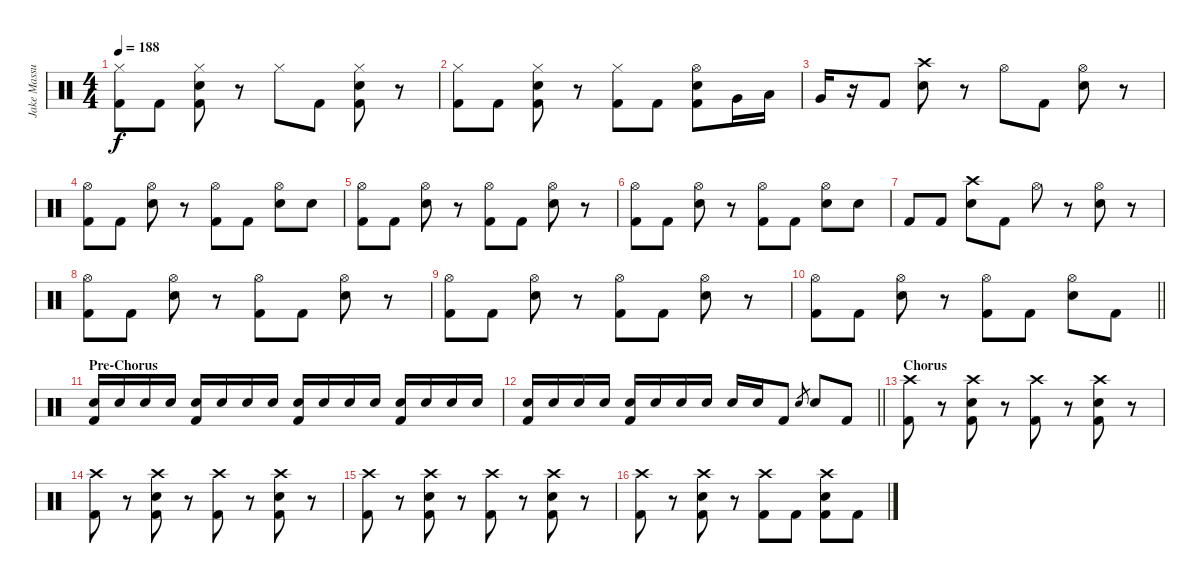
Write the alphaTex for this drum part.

\track ("Jake Massucco" "Jake Massu") {instrument percussion}
\staff {score}
\articulation defaults
\ts (4 4)
\tempo 188
\clef neutral
\ks c
("Hi-Hat (closed)" "Kick (hit) 2").8{dy f} "Kick (hit) 2".8 ("Hi-Hat (closed)" "Electric Snare (hit)" "Kick (hit) 2").8 r.8 "Hi-Hat (closed)".8 "Kick (hit) 2".8 ("Hi-Hat (closed)" "Electric Snare (hit)" "Kick (hit) 2").8 r.8 |
("Hi-Hat (closed)" "Kick (hit) 2").8 "Kick (hit) 2".8 ("Hi-Hat (closed)" "Electric Snare (hit)" "Kick (hit) 2").8 r.8 ("Hi-Hat (closed)" "Kick (hit) 2").8 "Kick (hit) 2".8 ("Hi-Hat (open)" "Electric Snare (hit)" "Kick (hit) 2").8 "Very Low Tom (hit)".16 "Low Floor Tom (hit)".16 |
"Very Low Tom (hit)".16 r.16 "Kick (hit) 2".8 ("Crash high (hit)" "Electric Snare (hit)").8 r.8 "Hi-Hat (open)".8 "Kick (hit) 2".8 ("Hi-Hat (open)" "Electric Snare (hit)").8 r.8 |
("Hi-Hat (open)" "Kick (hit) 2").8 "Kick (hit) 2".8 ("Hi-Hat (open)" "Electric Snare (hit)").8 r.8 ("Hi-Hat (open)" "Kick (hit) 2").8 "Kick (hit) 2".8 ("Hi-Hat (open)" "Electric Snare (hit)").8 "Electric Snare (hit)".8 |
("Hi-Hat (open)" "Kick (hit) 2").8 "Kick (hit) 2".8 ("Hi-Hat (open)" "Electric Snare (hit)").8 r.8 ("Hi-Hat (open)" "Kick (hit) 2").8 "Kick (hit) 2".8 ("Hi-Hat (open)" "Electric Snare (hit)").8 r.8 |
("Hi-Hat (open)" "Kick (hit) 2").8 "Kick (hit) 2".8 ("Hi-Hat (open)" "Electric Snare (hit)").8 r.8 ("Hi-Hat (open)" "Kick (hit) 2").8 "Kick (hit) 2".8 ("Hi-Hat (open)" "Electric Snare (hit)").8 "Electric Snare (hit)".8 |
"Kick (hit) 2".8 "Kick (hit) 2".8 ("Crash high (hit)" "Electric Snare (hit)").8 "Kick (hit) 2".8 "Hi-Hat (open)".8 r.8 ("Hi-Hat (open)" "Electric Snare (hit)").8 r.8 |
("Hi-Hat (open)" "Kick (hit) 2").8 "Kick (hit) 2".8 ("Hi-Hat (open)" "Electric Snare (hit)").8 r.8 ("Hi-Hat (open)" "Kick (hit) 2").8 "Kick (hit) 2".8 ("Hi-Hat (open)" "Electric Snare (hit)").8 r.8 |
("Hi-Hat (open)" "Kick (hit) 2").8 "Kick (hit) 2".8 ("Hi-Hat (open)" "Electric Snare (hit)").8 r.8 ("Hi-Hat (open)" "Kick (hit) 2").8 "Kick (hit) 2".8 ("Hi-Hat (open)" "Electric Snare (hit)").8 r.8 |
\barLineRight lightlight
("Hi-Hat (open)" "Kick (hit) 2").8 "Kick (hit) 2".8 ("Hi-Hat (open)" "Electric Snare (hit)").8 r.8 ("Hi-Hat (open)" "Kick (hit) 2").8 "Kick (hit) 2".8 ("Hi-Hat (open)" "Electric Snare (hit)").8 "Kick (hit) 2".8 |
\section ("" "Pre-Chorus")
("Electric Snare (hit)" "Kick (hit) 2").16 "Electric Snare (hit)".16 "Electric Snare (hit)".16 "Electric Snare (hit)".16 ("Electric Snare (hit)" "Kick (hit) 2").16 "Electric Snare (hit)".16 "Electric Snare (hit)".16 "Electric Snare (hit)".16 ("Electric Snare (hit)" "Kick (hit) 2").16 "Electric Snare (hit)".16 "Electric Snare (hit)".16 "Electric Snare (hit)".16 ("Electric Snare (hit)" "Kick (hit) 2").16 "Electric Snare (hit)".16 "Electric Snare (hit)".16 "Electric Snare (hit)".16 |
\barLineRight lightlight
("Electric Snare (hit)" "Kick (hit) 2").16 "Electric Snare (hit)".16 "Electric Snare (hit)".16 "Electric Snare (hit)".16 ("Electric Snare (hit)" "Kick (hit) 2").16 "Electric Snare (hit)".16 "Electric Snare (hit)".16 "Electric Snare (hit)".16 "Electric Snare (hit)".16 "Electric Snare (hit)".16 "Kick (hit) 2".8 "Electric Snare (hit)".8{gr} "Electric Snare (hit)".8 "Kick (hit) 2".8 |
\section ("" "Chorus")
("Crash high (hit)" "Kick (hit) 2").8 r.8 ("Crash high (hit)" "Electric Snare (hit)" "Kick (hit) 2").8 r.8 ("Crash high (hit)" "Kick (hit) 2").8 r.8 ("Crash high (hit)" "Electric Snare (hit)" "Kick (hit) 2").8 r.8 |
("Crash high (hit)" "Kick (hit) 2").8 r.8 ("Crash high (hit)" "Electric Snare (hit)" "Kick (hit) 2").8 r.8 ("Crash high (hit)" "Kick (hit) 2").8 r.8 ("Crash high (hit)" "Electric Snare (hit)" "Kick (hit) 2").8 r.8 |
("Crash high (hit)" "Kick (hit) 2").8 r.8 ("Crash high (hit)" "Electric Snare (hit)" "Kick (hit) 2").8 r.8 ("Crash high (hit)" "Kick (hit) 2").8 r.8 ("Crash high (hit)" "Electric Snare (hit)" "Kick (hit) 2").8 r.8 |
("Crash high (hit)" "Kick (hit) 2").8 r.8 ("Crash high (hit)" "Electric Snare (hit)" "Kick (hit) 2").8 r.8 ("Crash high (hit)" "Kick (hit) 2").8 "Kick (hit) 2".8 ("Crash high (hit)" "Electric Snare (hit)" "Kick (hit) 2").8 "Kick (hit) 2".8
